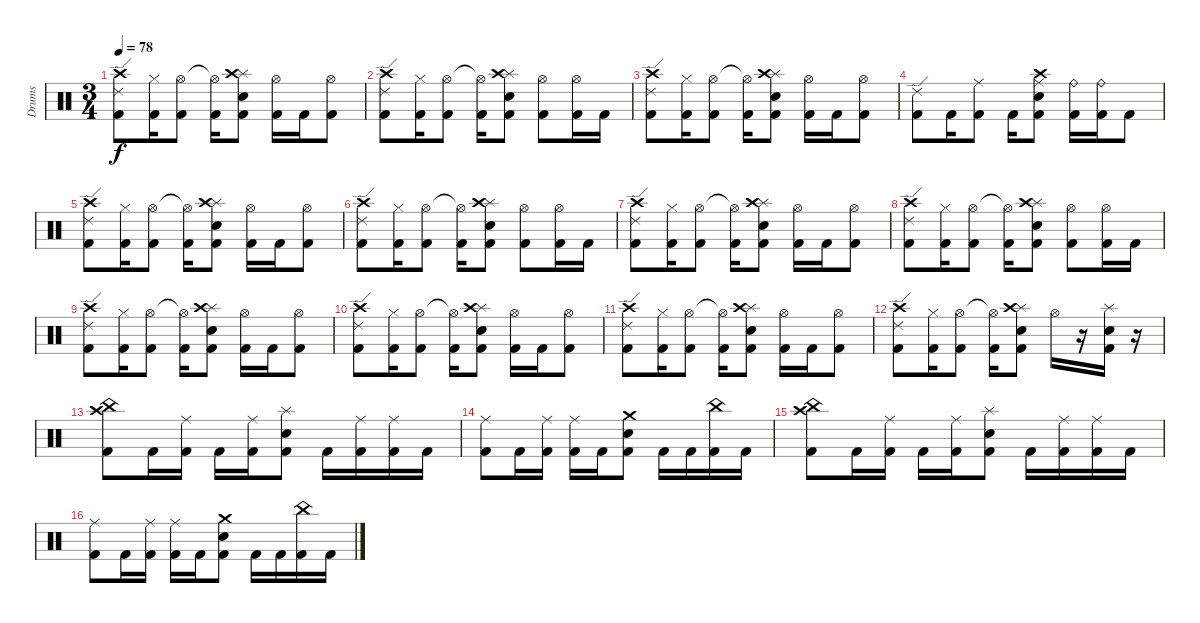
\track ("Drums" "Drums") {instrument percussion}
\staff {score}
\articulation defaults
\ts (3 4)
\tempo 78
\clef neutral
\ks c
("Crash high (hit)" "Ride (edge) 2" "Kick (hit) 2").8{dy f} ("Hi-Hat (closed)" "Kick (hit) 2").16 ("Hi-Hat (open)" "Kick (hit) 2").8 ("Hi-Hat (open)"{t} "Kick (hit) 2").16 ("Splash (hit)" "Crash high (hit)" "Snare (hit) 2" "Kick (hit) 2").8 ("Hi-Hat (open)" "Kick (hit) 2").16 "Kick (hit) 2".16 ("Hi-Hat (open)" "Kick (hit) 2").8 |
("Crash high (hit)" "Ride (edge) 2" "Kick (hit) 2").8 ("Hi-Hat (closed)" "Kick (hit) 2").16 ("Hi-Hat (open)" "Kick (hit) 2").8 ("Hi-Hat (open)"{t} "Kick (hit) 2").16 ("Splash (hit)" "Crash high (hit)" "Snare (hit) 2" "Kick (hit) 2").8 ("Hi-Hat (open)" "Kick (hit) 2").8 ("Hi-Hat (open)" "Kick (hit) 2").16 "Kick (hit) 2".16 |
("Crash high (hit)" "Ride (edge) 2" "Kick (hit) 2").8 ("Hi-Hat (closed)" "Kick (hit) 2").16 ("Hi-Hat (open)" "Kick (hit) 2").8 ("Hi-Hat (open)"{t} "Kick (hit) 2").16 ("Splash (hit)" "Crash high (hit)" "Snare (hit) 2" "Kick (hit) 2").8 ("Hi-Hat (open)" "Kick (hit) 2").16 "Kick (hit) 2".16 ("Hi-Hat (open)" "Kick (hit) 2").8 |
("Ride (edge) 2" "Kick (hit) 2").8 "Kick (hit) 2".16 ("Ride (middle)" "Kick (hit) 2").8 "Kick (hit) 2".16 ("Crash high (hit)" "Ride (middle)" "Snare (hit) 2" "Kick (hit) 2").8 ("Ride (bell)" "Kick (hit) 2").16 ("Ride (bell)" "Kick (hit) 2").16 "Kick (hit) 2".8 |
("Crash high (hit)" "Ride (edge) 2" "Kick (hit) 2").8 ("Hi-Hat (closed)" "Kick (hit) 2").16 ("Hi-Hat (open)" "Kick (hit) 2").8 ("Hi-Hat (open)"{t} "Kick (hit) 2").16 ("Splash (hit)" "Crash high (hit)" "Snare (hit) 2" "Kick (hit) 2").8 ("Hi-Hat (open)" "Kick (hit) 2").16 "Kick (hit) 2".16 ("Hi-Hat (open)" "Kick (hit) 2").8 |
("Crash high (hit)" "Ride (edge) 2" "Kick (hit) 2").8 ("Hi-Hat (closed)" "Kick (hit) 2").16 ("Hi-Hat (open)" "Kick (hit) 2").8 ("Hi-Hat (open)"{t} "Kick (hit) 2").16 ("Splash (hit)" "Crash high (hit)" "Snare (hit) 2" "Kick (hit) 2").8 ("Hi-Hat (open)" "Kick (hit) 2").8 ("Hi-Hat (open)" "Kick (hit) 2").16 "Kick (hit) 2".16 |
("Crash high (hit)" "Ride (edge) 2" "Kick (hit) 2").8 ("Hi-Hat (closed)" "Kick (hit) 2").16 ("Hi-Hat (open)" "Kick (hit) 2").8 ("Hi-Hat (open)"{t} "Kick (hit) 2").16 ("Splash (hit)" "Crash high (hit)" "Snare (hit) 2" "Kick (hit) 2").8 ("Hi-Hat (open)" "Kick (hit) 2").16 "Kick (hit) 2".16 ("Hi-Hat (open)" "Kick (hit) 2").8 |
("Crash high (hit)" "Ride (edge) 2" "Kick (hit) 2").8 ("Hi-Hat (closed)" "Kick (hit) 2").16 ("Hi-Hat (open)" "Kick (hit) 2").8 ("Hi-Hat (open)"{t} "Kick (hit) 2").16 ("Splash (hit)" "Crash high (hit)" "Snare (hit) 2" "Kick (hit) 2").8 ("Hi-Hat (open)" "Kick (hit) 2").8 ("Hi-Hat (open)" "Kick (hit) 2").16 "Kick (hit) 2".16 |
("Crash high (hit)" "Ride (edge) 2" "Kick (hit) 2").8 ("Hi-Hat (closed)" "Kick (hit) 2").16 ("Hi-Hat (open)" "Kick (hit) 2").8 ("Hi-Hat (open)"{t} "Kick (hit) 2").16 ("Splash (hit)" "Crash high (hit)" "Snare (hit) 2" "Kick (hit) 2").8 ("Hi-Hat (open)" "Kick (hit) 2").16 "Kick (hit) 2".16 ("Hi-Hat (open)" "Kick (hit) 2").8 |
("Crash high (hit)" "Ride (edge) 2" "Kick (hit) 2").8 ("Hi-Hat (closed)" "Kick (hit) 2").16 ("Hi-Hat (open)" "Kick (hit) 2").8 ("Hi-Hat (open)"{t} "Kick (hit) 2").16 ("Splash (hit)" "Crash high (hit)" "Snare (hit) 2" "Kick (hit) 2").8 ("Hi-Hat (open)" "Kick (hit) 2").16 "Kick (hit) 2".16 ("Hi-Hat (open)" "Kick (hit) 2").8 |
("Crash high (hit)" "Ride (edge) 2" "Kick (hit) 2").8 ("Hi-Hat (closed)" "Kick (hit) 2").16 ("Hi-Hat (open)" "Kick (hit) 2").8 ("Hi-Hat (open)"{t} "Kick (hit) 2").16 ("Splash (hit)" "Crash high (hit)" "Snare (hit) 2" "Kick (hit) 2").8 ("Hi-Hat (open)" "Kick (hit) 2").16 "Kick (hit) 2".16 ("Hi-Hat (open)" "Kick (hit) 2").8 |
("Crash high (hit)" "Ride (edge) 2" "Kick (hit) 2").8 ("Hi-Hat (closed)" "Kick (hit) 2").16 ("Hi-Hat (open)" "Kick (hit) 2").8 ("Hi-Hat (open)"{t} "Kick (hit) 2").16 ("Splash (hit)" "Crash high (hit)" "Snare (hit) 2" "Kick (hit) 2").8 "Hi-Hat (open)".16 r.16 ("Splash (hit)" "Kick (hit) 2" "Snare (hit) 2").16 r.16 |
("China (hit)" "Crash high (hit)" "Kick (hit) 2").8 "Kick (hit) 2".16 ("Ride (middle)" "Kick (hit) 2").16 "Kick (hit) 2".16 ("Ride (middle)" "Kick (hit) 2").16 ("Splash (hit)" "Snare (hit) 2" "Kick (hit) 2").8 "Kick (hit) 2".16 ("Ride (middle)" "Kick (hit) 2").16 ("Ride (middle)" "Kick (hit) 2").16 "Kick (hit) 2".16 |
("Ride (middle)" "Kick (hit) 2").8 "Kick (hit) 2".16 ("Ride (middle)" "Kick (hit) 2").16 ("Ride (middle)" "Kick (hit) 2").16 "Kick (hit) 2".16 ("Crash medium (hit)" "Snare (hit) 2" "Kick (hit) 2").8 "Kick (hit) 2".16 "Kick (hit) 2".16 ("China (hit)" "Kick (hit) 2").16 "Kick (hit) 2".16 |
("China (hit)" "Crash high (hit)" "Kick (hit) 2").8 "Kick (hit) 2".16 ("Ride (middle)" "Kick (hit) 2").16 "Kick (hit) 2".16 ("Ride (middle)" "Kick (hit) 2").16 ("Splash (hit)" "Snare (hit) 2" "Kick (hit) 2").8 "Kick (hit) 2".16 ("Ride (middle)" "Kick (hit) 2").16 ("Ride (middle)" "Kick (hit) 2").16 "Kick (hit) 2".16 |
("Ride (middle)" "Kick (hit) 2").8 "Kick (hit) 2".16 ("Ride (middle)" "Kick (hit) 2").16 ("Ride (middle)" "Kick (hit) 2").16 "Kick (hit) 2".16 ("Crash medium (hit)" "Snare (hit) 2" "Kick (hit) 2").8 "Kick (hit) 2".16 "Kick (hit) 2".16 ("China (hit)" "Kick (hit) 2").16 "Kick (hit) 2".16
